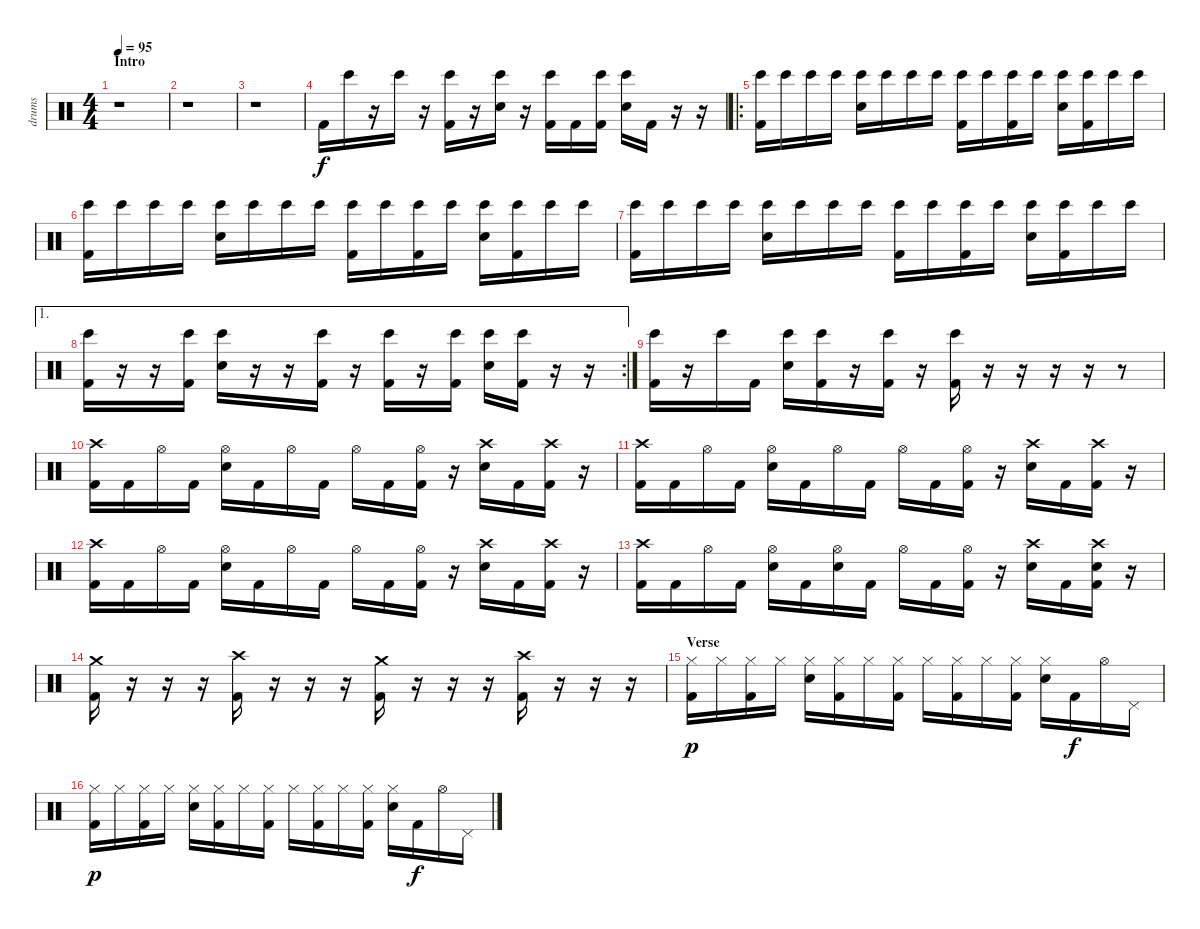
\track ("drums" "drums") {instrument percussion}
\staff {score}
\articulation defaults
\ts (4 4)
\section ("" "Intro")
\tempo 95
\clef neutral
\ks c
r.1{dy f} |
r.1 |
r.1 |
"Kick (hit) 2".16{volume 6} "Bongo High (hit)".16 r.16 "Bongo High (hit)".16 r.16 ("Kick (hit) 2" "Bongo High (hit)").16 r.16 ("Bongo High (hit)" "Electric Snare (hit)").16 r.16 ("Kick (hit) 2" "Bongo High (hit)").16 "Kick (hit) 2".16 ("Kick (hit) 2" "Bongo High (hit)").16 ("Bongo High (hit)" "Electric Snare (hit)").16 "Kick (hit) 2".16 r.16 r.16 |
\ro
("Kick (hit) 2" "Bongo High (hit)").16{volume 6} "Bongo High (hit)".16 "Bongo High (hit)".16 "Bongo High (hit)".16 ("Electric Snare (hit)" "Bongo High (hit)").16 "Bongo High (hit)".16 "Bongo High (hit)".16 "Bongo High (hit)".16 ("Kick (hit) 2" "Bongo High (hit)").16 "Bongo High (hit)".16 ("Kick (hit) 2" "Bongo High (hit)").16 "Bongo High (hit)".16 ("Electric Snare (hit)" "Bongo High (hit)").16 ("Kick (hit) 2" "Bongo High (hit)").16 "Bongo High (hit)".16 "Bongo High (hit)".16 |
("Kick (hit) 2" "Bongo High (hit)").16 "Bongo High (hit)".16 "Bongo High (hit)".16 "Bongo High (hit)".16 ("Electric Snare (hit)" "Bongo High (hit)").16 "Bongo High (hit)".16 "Bongo High (hit)".16 "Bongo High (hit)".16 ("Kick (hit) 2" "Bongo High (hit)").16 "Bongo High (hit)".16 ("Kick (hit) 2" "Bongo High (hit)").16 "Bongo High (hit)".16 ("Electric Snare (hit)" "Bongo High (hit)").16 ("Kick (hit) 2" "Bongo High (hit)").16 "Bongo High (hit)".16 "Bongo High (hit)".16 |
("Kick (hit) 2" "Bongo High (hit)").16 "Bongo High (hit)".16 "Bongo High (hit)".16 "Bongo High (hit)".16 ("Electric Snare (hit)" "Bongo High (hit)").16 "Bongo High (hit)".16 "Bongo High (hit)".16 "Bongo High (hit)".16 ("Kick (hit) 2" "Bongo High (hit)").16 "Bongo High (hit)".16 ("Kick (hit) 2" "Bongo High (hit)").16 "Bongo High (hit)".16 ("Electric Snare (hit)" "Bongo High (hit)").16 ("Kick (hit) 2" "Bongo High (hit)").16 "Bongo High (hit)".16 "Bongo High (hit)".16 |
\ae 1
\rc 2
("Kick (hit) 2" "Bongo High (hit)").16 r.16 r.16 ("Kick (hit) 2" "Bongo High (hit)").16 ("Snare (hit) 2" "Bongo High (hit)").16 r.16 r.16 ("Kick (hit) 2" "Bongo High (hit)").16 r.16 ("Kick (hit) 2" "Bongo High (hit)").16 r.16 ("Kick (hit) 2" "Bongo High (hit)").16 ("Snare (hit) 2" "Bongo High (hit)").16 ("Kick (hit) 2" "Bongo High (hit)").16 r.16 r.16 |
("Kick (hit) 2" "Bongo High (hit)").16 r.16 "Bongo High (hit)".16 "Kick (hit) 2".16 ("Snare (hit) 2" "Bongo High (hit)").16 ("Kick (hit) 2" "Bongo High (hit)").16 r.16 ("Kick (hit) 2" "Bongo High (hit)").16 r.16 ("Kick (hit) 2" "Bongo High (hit)").16 r.16 r.16 r.16 r.16 r.8 |
("Kick (hit) 2" "Crash high (hit)").16{volume 13} "Kick (hit) 2".16 "Hi-Hat (open)".16 "Kick (hit) 2".16 ("Electric Snare (hit)" "Hi-Hat (open)").16 "Kick (hit) 2".16 "Hi-Hat (open)".16 "Kick (hit) 2".16 "Hi-Hat (open)".16 "Kick (hit) 2".16 ("Kick (hit) 2" "Hi-Hat (open)").16 r.16 ("Electric Snare (hit)" "Crash high (hit)").16 "Kick (hit) 2".16 ("Kick (hit) 2" "Crash high (hit)").16 r.16 |
("Kick (hit) 2" "Crash high (hit)").16 "Kick (hit) 2".16 "Hi-Hat (open)".16 "Kick (hit) 2".16 ("Electric Snare (hit)" "Hi-Hat (open)").16 "Kick (hit) 2".16 "Hi-Hat (open)".16 "Kick (hit) 2".16 "Hi-Hat (open)".16 "Kick (hit) 2".16 ("Kick (hit) 2" "Hi-Hat (open)").16 r.16 ("Electric Snare (hit)" "Crash high (hit)").16 "Kick (hit) 2".16 ("Kick (hit) 2" "Crash high (hit)").16 r.16 |
("Kick (hit) 2" "Crash high (hit)").16 "Kick (hit) 2".16 "Hi-Hat (open)".16 "Kick (hit) 2".16 ("Electric Snare (hit)" "Hi-Hat (open)").16 "Kick (hit) 2".16 "Hi-Hat (open)".16 "Kick (hit) 2".16 "Hi-Hat (open)".16 "Kick (hit) 2".16 ("Kick (hit) 2" "Hi-Hat (open)").16 r.16 ("Electric Snare (hit)" "Crash high (hit)").16 "Kick (hit) 2".16 ("Kick (hit) 2" "Crash high (hit)").16 r.16 |
("Kick (hit) 2" "Crash high (hit)").16 "Kick (hit) 2".16 "Hi-Hat (open)".16 "Kick (hit) 2".16 ("Electric Snare (hit)" "Hi-Hat (open)").16 "Kick (hit) 2".16 ("Electric Snare (hit)" "Hi-Hat (open)").16 "Kick (hit) 2".16 "Hi-Hat (open)".16 "Kick (hit) 2".16 ("Kick (hit) 2" "Hi-Hat (open)").16 r.16 ("Electric Snare (hit)" "Crash high (hit)").16 "Kick (hit) 2".16 ("Kick (hit) 2" "Electric Snare (hit)" "Crash high (hit)").16 r.16 |
("Kick (hit) 2" "Crash medium (hit)").16 r.16 r.16 r.16 ("Kick (hit) 2" "Crash high (hit)").16 r.16 r.16 r.16 ("Kick (hit) 2" "Crash medium (hit)").16 r.16 r.16 r.16 ("Kick (hit) 2" "Crash high (hit)").16 r.16 r.16 r.16 |
\section ("" "Verse")
("Kick (hit) 2" "Hi-Hat (closed)").16{dy p} "Hi-Hat (closed)".16 ("Kick (hit) 2" "Hi-Hat (closed)").16 "Hi-Hat (closed)".16 ("Electric Snare (hit)" "Hi-Hat (closed)").16 ("Kick (hit) 2" "Hi-Hat (closed)").16 "Hi-Hat (closed)".16 ("Kick (hit) 2" "Hi-Hat (closed)").16 "Hi-Hat (closed)".16 ("Kick (hit) 2" "Hi-Hat (closed)").16 "Hi-Hat (closed)".16 ("Kick (hit) 2" "Hi-Hat (closed)").16 ("Electric Snare (hit)" "Hi-Hat (closed)").16 "Kick (hit) 2".16{dy f} "Hi-Hat (open)".16 "Pedal Hi-Hat (hit)".16 |
("Kick (hit) 2" "Hi-Hat (closed)").16{dy p} "Hi-Hat (closed)".16 ("Kick (hit) 2" "Hi-Hat (closed)").16 "Hi-Hat (closed)".16 ("Electric Snare (hit)" "Hi-Hat (closed)").16 ("Kick (hit) 2" "Hi-Hat (closed)").16 "Hi-Hat (closed)".16 ("Kick (hit) 2" "Hi-Hat (closed)").16 "Hi-Hat (closed)".16 ("Kick (hit) 2" "Hi-Hat (closed)").16 "Hi-Hat (closed)".16 ("Kick (hit) 2" "Hi-Hat (closed)").16 ("Electric Snare (hit)" "Hi-Hat (closed)").16 "Kick (hit) 2".16{dy f} "Hi-Hat (open)".16 "Pedal Hi-Hat (hit)".16
